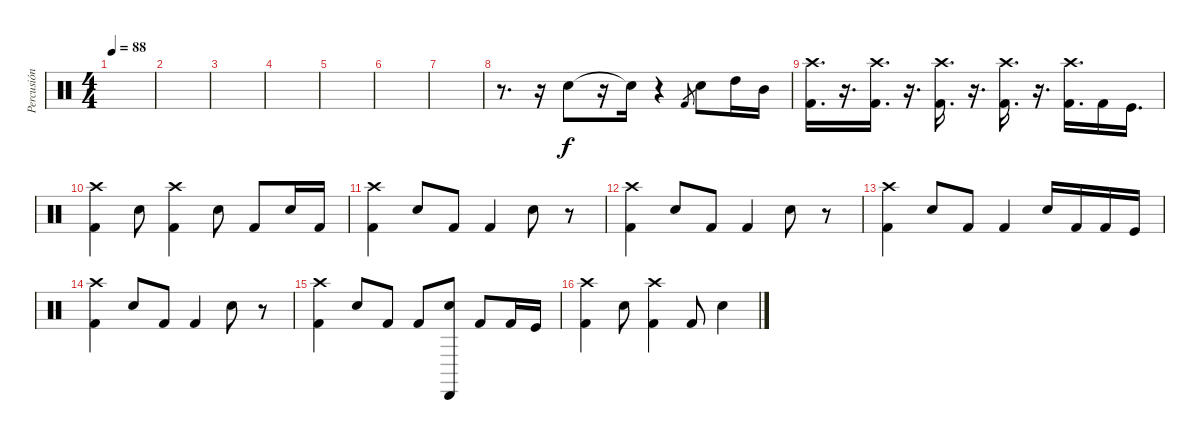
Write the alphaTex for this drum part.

\track ("Percusión" "Percusión") {instrument percussion}
\staff {score}
\articulation defaults
\ts (4 4)
\tempo 88
\clef neutral
\ks c
|
|
|
|
|
|
|
r.8{d} r.16 "Snare (hit)".8 r.16 "Snare (hit)"{t}.16 r.4 "Kick (hit) 2".8{gr} "Snare (hit) 2".8 "High Tom (hit)".16 "Mid Tom (hit)".16 |
("Crash high (hit)" "Kick (hit) 2").16{d} r.16{d} ("Crash high (hit)" "Kick (hit) 2").16{d} r.16{d} ("Crash high (hit)" "Kick (hit) 2").16{d} r.16{d} ("Crash high (hit)" "Kick (hit) 2").16{d} r.16{d} ("Crash high (hit)" "Kick (hit) 2").16{d} "Kick (hit) 2".16 "Kick (hit)".16{d} |
("Crash high (hit)" "Kick (hit) 2").4 "Snare (hit) 2".8 ("Crash high (hit)" "Kick (hit) 2").4 "Snare (hit) 2".8 "Kick (hit) 2".8 "Snare (hit) 2".16 "Kick (hit) 2".16 |
("Crash high (hit)" "Kick (hit) 2").4 "Snare (hit) 2".8 "Kick (hit) 2".8 "Kick (hit) 2".4 "Snare (hit) 2".8 r.8 |
("Crash high (hit)" "Kick (hit) 2").4 "Snare (hit) 2".8 "Kick (hit) 2".8 "Kick (hit) 2".4 "Snare (hit) 2".8 r.8 |
("Crash high (hit)" "Kick (hit) 2").4 "Snare (hit) 2".8 "Kick (hit) 2".8 "Kick (hit) 2".4 "Snare (hit) 2".16 "Kick (hit) 2".16 "Kick (hit) 2".16 "Kick (hit)".16 |
("Crash high (hit)" "Kick (hit) 2").4 "Snare (hit) 2".8 "Kick (hit) 2".8 "Kick (hit) 2".4 "Snare (hit) 2".8 r.8 |
("Crash high (hit)" "Kick (hit) 2").4 "Snare (hit) 2".8 "Kick (hit) 2".8 "Kick (hit) 2".8 ("Cabasa (hit)" "Snare (hit) 2").8 "Kick (hit) 2".8 "Kick (hit) 2".16 "Kick (hit)".16 |
("Crash high (hit)" "Kick (hit) 2").4 "Snare (hit) 2".8 ("Crash high (hit)" "Kick (hit) 2").4 "Kick (hit) 2".8 "Snare (hit) 2".4
